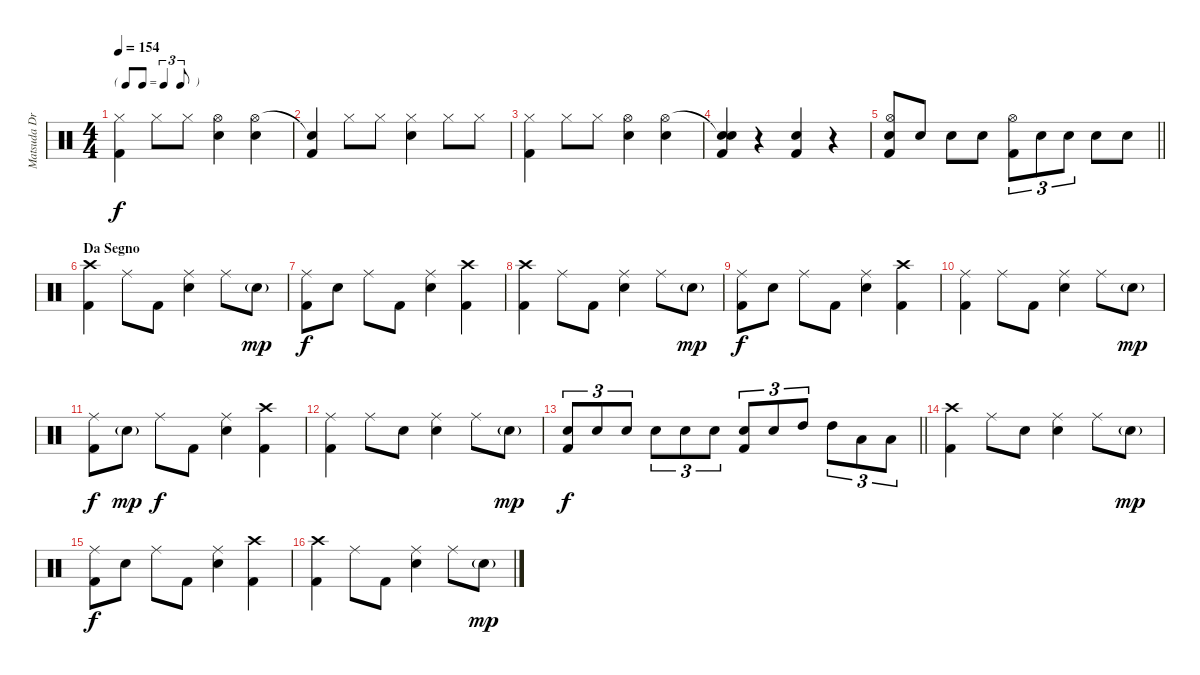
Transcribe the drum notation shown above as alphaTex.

\track ("Matsuda Drums" "Matsuda Dr") {instrument percussion}
\staff {score}
\articulation defaults
\ts (4 4)
\tf triplet8th
\tempo 154
\clef neutral
\ks c
("Hi-Hat (closed)" "Kick (hit) 2").4{dy f} "Hi-Hat (closed)".8 "Hi-Hat (closed)".8 ("Hi-Hat (open)" "Snare (hit) 2").4 ("Hi-Hat (open)" "Snare (hit) 2").4 |
("Snare (hit)"{t} "Kick (hit) 2").4 "Hi-Hat (closed)".8 "Hi-Hat (closed)".8 ("Hi-Hat (closed)" "Snare (hit) 2").4 "Hi-Hat (closed)".8 "Hi-Hat (closed)".8 |
("Hi-Hat (closed)" "Kick (hit) 2").4 "Hi-Hat (closed)".8 "Hi-Hat (closed)".8 ("Hi-Hat (open)" "Snare (hit) 2").4 ("Hi-Hat (open)" "Snare (hit) 2").4 |
("Snare (hit)"{t} "Snare (hit) 2" "Kick (hit) 2").4 r.4 ("Snare (hit) 2" "Kick (hit) 2").4 r.4 |
\barLineRight lightlight
("Hi-Hat (open)" "Snare (hit) 2" "Kick (hit) 2").8 "Snare (hit) 2".8 "Snare (hit) 2".8 "Snare (hit) 2".8 ("Hi-Hat (open)" "Kick (hit) 2").8{tu (3 2)} "Snare (hit) 2".8{tu (3 2)} "Snare (hit) 2".8{tu (3 2)} "Snare (hit) 2".8 "Snare (hit) 2".8 |
\section ("" "Da Segno")
("Crash high (hit)" "Kick (hit) 2").4 "Ride (middle)".8 "Kick (hit) 2".8 ("Ride (middle)" "Snare (hit) 2").4 "Ride (middle)".8 "Snare (hit) 2"{g}.8{dy mp} |
("Ride (middle)" "Kick (hit) 2").8{dy f} "Snare (hit) 2".8 "Ride (middle)".8 "Kick (hit) 2".8 ("Ride (middle)" "Snare (hit) 2").4 ("Crash high (hit)" "Kick (hit) 2").4 |
("Crash high (hit)" "Kick (hit) 2").4 "Ride (middle)".8 "Kick (hit) 2".8 ("Ride (middle)" "Snare (hit) 2").4 "Ride (middle)".8 "Snare (hit) 2"{g}.8{dy mp} |
("Ride (middle)" "Kick (hit) 2").8{dy f} "Snare (hit) 2".8 "Ride (middle)".8 "Kick (hit) 2".8 ("Ride (middle)" "Snare (hit) 2").4 ("Crash high (hit)" "Kick (hit) 2").4 |
("Ride (middle)" "Kick (hit) 2").4 "Ride (middle)".8 "Kick (hit) 2".8 ("Ride (middle)" "Snare (hit) 2").4 "Ride (middle)".8 "Snare (hit) 2"{g}.8{dy mp} |
("Ride (middle)" "Kick (hit) 2").8{dy f} "Snare (hit) 2"{g}.8{dy mp} "Ride (middle)".8{dy f} "Kick (hit) 2".8 ("Ride (middle)" "Snare (hit) 2").4 ("Crash high (hit)" "Kick (hit) 2").4 |
("Ride (middle)" "Kick (hit) 2").4 "Ride (middle)".8 "Snare (hit) 2".8 ("Ride (middle)" "Snare (hit) 2").4 "Ride (middle)".8 "Snare (hit) 2"{g}.8{dy mp} |
\barLineRight lightlight
("Snare (hit) 2" "Kick (hit) 2").8{tu (3 2) dy f} "Snare (hit) 2".8{tu (3 2)} "Snare (hit) 2".8{tu (3 2)} "Snare (hit) 2".8{tu (3 2)} "Snare (hit) 2".8{tu (3 2)} "Snare (hit) 2".8{tu (3 2)} ("Snare (hit) 2" "Kick (hit) 2").8{tu (3 2)} "Snare (hit) 2".8{tu (3 2)} "High Tom (hit)".8{tu (3 2)} "High Tom (hit)".8{tu (3 2)} "Low Floor Tom (hit)".8{tu (3 2)} "Low Floor Tom (hit)".8{tu (3 2)} |
("Crash high (hit)" "Kick (hit) 2").4 "Ride (middle)".8 "Snare (hit) 2".8 ("Ride (middle)" "Snare (hit) 2").4 "Ride (middle)".8 "Snare (hit) 2"{g}.8{dy mp} |
("Ride (middle)" "Kick (hit) 2").8{dy f} "Snare (hit) 2".8 "Ride (middle)".8 "Kick (hit) 2".8 ("Ride (middle)" "Snare (hit) 2").4 ("Crash high (hit)" "Kick (hit) 2").4 |
("Crash high (hit)" "Kick (hit) 2").4 "Ride (middle)".8 "Kick (hit) 2".8 ("Ride (middle)" "Snare (hit) 2").4 "Ride (middle)".8 "Snare (hit) 2"{g}.8{dy mp}
